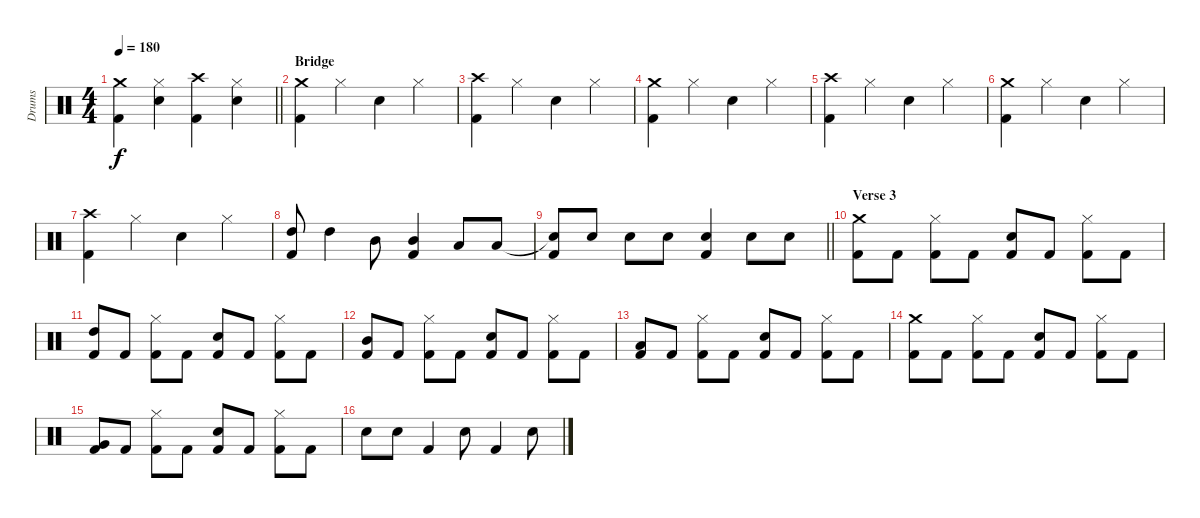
\track ("Drums" "Drums") {instrument percussion}
\staff {score}
\articulation defaults
\ts (4 4)
\tempo 180
\clef neutral
\barLineRight lightlight
\ks c
("Kick (hit) 2" "Crash medium (hit)").4{dy f} ("Snare (hit) 2" "Hi-Hat (closed)").4 ("Kick (hit) 2" "Crash high (hit)").4 ("Snare (hit) 2" "Hi-Hat (closed)").4 |
\section ("" "Bridge")
("Kick (hit) 2" "Crash medium (hit)").4 "Hi-Hat (closed)".4 "Snare (hit) 2".4 "Hi-Hat (closed)".4 |
("Kick (hit) 2" "Crash high (hit)").4 "Hi-Hat (closed)".4 "Snare (hit) 2".4 "Hi-Hat (closed)".4 |
("Kick (hit) 2" "Crash medium (hit)").4 "Hi-Hat (closed)".4 "Snare (hit) 2".4 "Hi-Hat (closed)".4 |
("Kick (hit) 2" "Crash high (hit)").4 "Hi-Hat (closed)".4 "Snare (hit) 2".4 "Hi-Hat (closed)".4 |
("Kick (hit) 2" "Crash medium (hit)").4 "Hi-Hat (closed)".4 "Snare (hit) 2".4 "Hi-Hat (closed)".4 |
("Kick (hit) 2" "Crash high (hit)").4 "Hi-Hat (closed)".4 "Snare (hit) 2".4 "Hi-Hat (closed)".4 |
("High Tom (hit)" "Kick (hit) 2").8 "High Tom (hit)".4 "Mid Tom (hit)".8 ("Mid Tom (hit)" "Kick (hit) 2").4 "Low Tom (hit)".8 "Low Tom (hit)".8 |
\barLineRight lightlight
("Snare (hit)"{t} "Kick (hit) 2").8 "Snare (hit) 2".8 "Snare (hit) 2".8 "Snare (hit) 2".8 ("Snare (hit) 2" "Kick (hit) 2").4 "Snare (hit) 2".8 "Snare (hit) 2".8 |
\section ("" "Verse 3")
("Kick (hit) 2" "Crash medium (hit)").8 "Kick (hit) 2".8 ("Kick (hit) 2" "Hi-Hat (closed)").8 "Kick (hit) 2".8 ("Kick (hit) 2" "Snare (hit) 2").8 "Kick (hit) 2".8 ("Kick (hit) 2" "Hi-Hat (closed)").8 "Kick (hit) 2".8 |
("Kick (hit) 2" "High Tom (hit)").8 "Kick (hit) 2".8 ("Kick (hit) 2" "Hi-Hat (closed)").8 "Kick (hit) 2".8 ("Kick (hit) 2" "Snare (hit) 2").8 "Kick (hit) 2".8 ("Kick (hit) 2" "Hi-Hat (closed)").8 "Kick (hit) 2".8 |
("Kick (hit) 2" "Mid Tom (hit)").8 "Kick (hit) 2".8 ("Kick (hit) 2" "Hi-Hat (closed)").8 "Kick (hit) 2".8 ("Kick (hit) 2" "Snare (hit) 2").8 "Kick (hit) 2".8 ("Kick (hit) 2" "Hi-Hat (closed)").8 "Kick (hit) 2".8 |
("Kick (hit) 2" "Low Tom (hit)").8 "Kick (hit) 2".8 ("Kick (hit) 2" "Hi-Hat (closed)").8 "Kick (hit) 2".8 ("Kick (hit) 2" "Snare (hit) 2").8 "Kick (hit) 2".8 ("Kick (hit) 2" "Hi-Hat (closed)").8 "Kick (hit) 2".8 |
("Kick (hit) 2" "Crash medium (hit)").8 "Kick (hit) 2".8 ("Kick (hit) 2" "Hi-Hat (closed)").8 "Kick (hit) 2".8 ("Kick (hit) 2" "Snare (hit) 2").8 "Kick (hit) 2".8 ("Kick (hit) 2" "Hi-Hat (closed)").8 "Kick (hit) 2".8 |
("Kick (hit) 2" "Very Low Tom (hit)").8 "Kick (hit) 2".8 ("Kick (hit) 2" "Hi-Hat (closed)").8 "Kick (hit) 2".8 ("Kick (hit) 2" "Snare (hit) 2").8 "Kick (hit) 2".8 ("Kick (hit) 2" "Hi-Hat (closed)").8 "Kick (hit) 2".8 |
"Snare (hit) 2".8 "Snare (hit) 2".8 "Kick (hit) 2".4 "Snare (hit) 2".8 "Kick (hit) 2".4 "Snare (hit) 2".8
